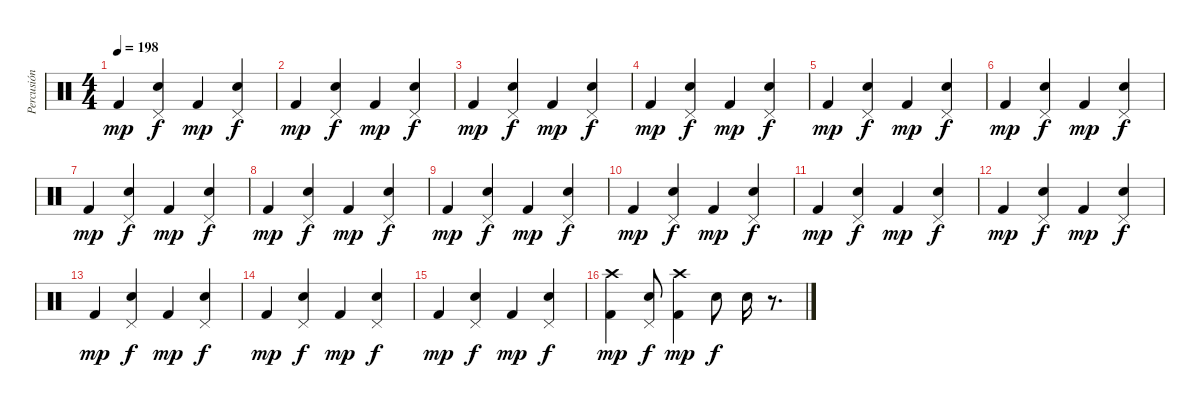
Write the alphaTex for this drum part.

\track ("Percusión" "Percusión") {instrument percussion}
\staff {score}
\articulation defaults
\ts (4 4)
\tempo 198
\clef neutral
\ks c "Kick (hit) 2".4{dy mp}
("Pedal Hi-Hat (hit)" "Snare (hit) 2").4{dy f} "Kick (hit) 2".4{dy mp} ("Pedal Hi-Hat (hit)" "Snare (hit) 2").4{dy f} |
"Kick (hit) 2".4{dy mp} ("Pedal Hi-Hat (hit)" "Snare (hit) 2").4{dy f} "Kick (hit) 2".4{dy mp} ("Pedal Hi-Hat (hit)" "Snare (hit) 2").4{dy f} |
"Kick (hit) 2".4{dy mp} ("Pedal Hi-Hat (hit)" "Snare (hit) 2").4{dy f} "Kick (hit) 2".4{dy mp} ("Pedal Hi-Hat (hit)" "Snare (hit) 2").4{dy f} |
"Kick (hit) 2".4{dy mp} ("Pedal Hi-Hat (hit)" "Snare (hit) 2").4{dy f} "Kick (hit) 2".4{dy mp} ("Pedal Hi-Hat (hit)" "Snare (hit) 2").4{dy f} |
"Kick (hit) 2".4{dy mp} ("Pedal Hi-Hat (hit)" "Snare (hit) 2").4{dy f} "Kick (hit) 2".4{dy mp} ("Pedal Hi-Hat (hit)" "Snare (hit) 2").4{dy f} |
"Kick (hit) 2".4{dy mp} ("Pedal Hi-Hat (hit)" "Snare (hit) 2").4{dy f} "Kick (hit) 2".4{dy mp} ("Pedal Hi-Hat (hit)" "Snare (hit) 2").4{dy f} |
"Kick (hit) 2".4{dy mp} ("Pedal Hi-Hat (hit)" "Snare (hit) 2").4{dy f} "Kick (hit) 2".4{dy mp} ("Pedal Hi-Hat (hit)" "Snare (hit) 2").4{dy f} |
"Kick (hit) 2".4{dy mp} ("Pedal Hi-Hat (hit)" "Snare (hit) 2").4{dy f} "Kick (hit) 2".4{dy mp} ("Pedal Hi-Hat (hit)" "Snare (hit) 2").4{dy f} |
"Kick (hit) 2".4{dy mp} ("Pedal Hi-Hat (hit)" "Snare (hit) 2").4{dy f} "Kick (hit) 2".4{dy mp} ("Pedal Hi-Hat (hit)" "Snare (hit) 2").4{dy f} |
"Kick (hit) 2".4{dy mp} ("Pedal Hi-Hat (hit)" "Snare (hit) 2").4{dy f} "Kick (hit) 2".4{dy mp} ("Pedal Hi-Hat (hit)" "Snare (hit) 2").4{dy f} |
"Kick (hit) 2".4{dy mp} ("Pedal Hi-Hat (hit)" "Snare (hit) 2").4{dy f} "Kick (hit) 2".4{dy mp} ("Pedal Hi-Hat (hit)" "Snare (hit) 2").4{dy f} |
"Kick (hit) 2".4{dy mp} ("Pedal Hi-Hat (hit)" "Snare (hit) 2").4{dy f} "Kick (hit) 2".4{dy mp} ("Pedal Hi-Hat (hit)" "Snare (hit) 2").4{dy f} |
"Kick (hit) 2".4{dy mp} ("Pedal Hi-Hat (hit)" "Snare (hit) 2").4{dy f} "Kick (hit) 2".4{dy mp} ("Pedal Hi-Hat (hit)" "Snare (hit) 2").4{dy f} |
"Kick (hit) 2".4{dy mp} ("Pedal Hi-Hat (hit)" "Snare (hit) 2").4{dy f} "Kick (hit) 2".4{dy mp} ("Pedal Hi-Hat (hit)" "Snare (hit) 2").4{dy f} |
"Kick (hit) 2".4{dy mp} ("Pedal Hi-Hat (hit)" "Snare (hit) 2").4{dy f} "Kick (hit) 2".4{dy mp} ("Pedal Hi-Hat (hit)" "Snare (hit) 2").4{dy f} |
("Crash high (hit)" "Kick (hit) 2").4{dy mp} ("Pedal Hi-Hat (hit)" "Snare (hit) 2").8{dy f} ("Crash high (hit)" "Kick (hit) 2").4{dy mp} "Snare (hit) 2".8{dy f} "Snare (hit) 2".16 r.8{d}
